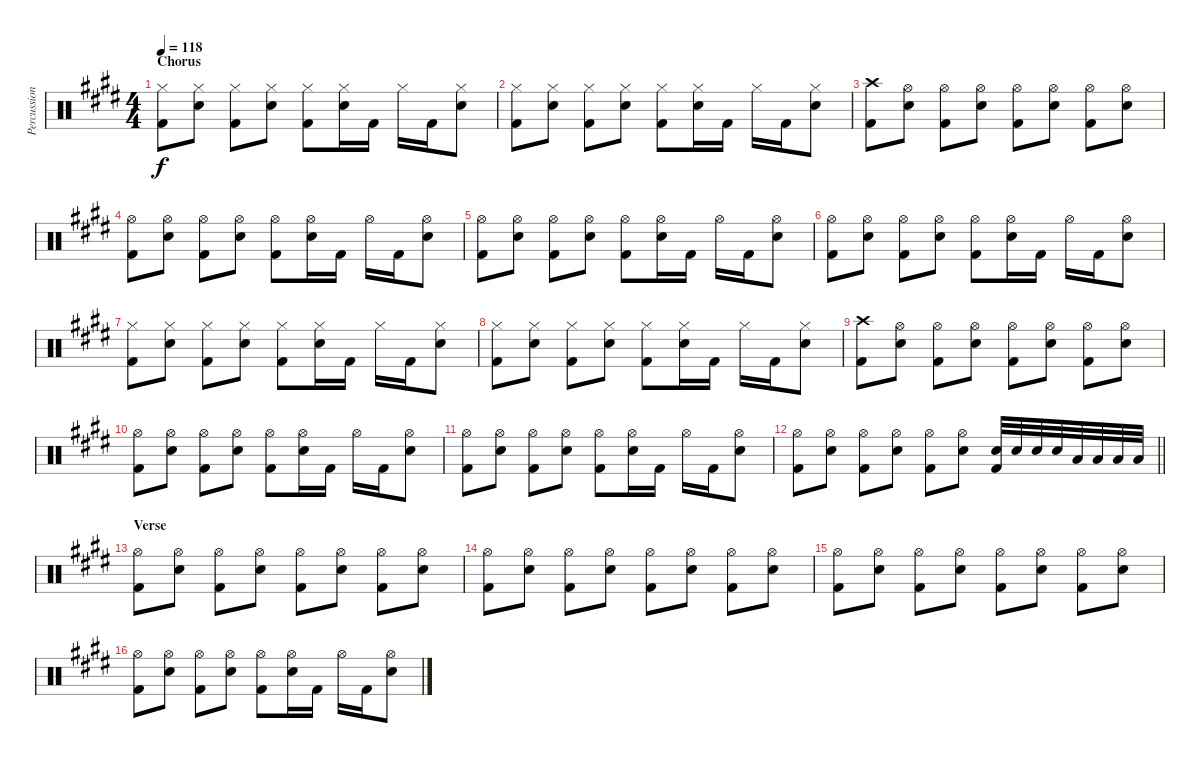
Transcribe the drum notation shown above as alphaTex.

\track ("Percussion" "Percussion") {instrument percussion}
\staff {score}
\articulation defaults
\ts (4 4)
\section ("" "Chorus")
\tempo 118
\clef neutral
\ks e
("Hi-Hat (closed)" "Kick (hit) 2").8{dy f} ("Hi-Hat (closed)" "Electric Snare (hit)").8 ("Hi-Hat (closed)" "Kick (hit) 2").8 ("Hi-Hat (closed)" "Electric Snare (hit)").8 ("Hi-Hat (closed)" "Kick (hit) 2").8 ("Hi-Hat (closed)" "Electric Snare (hit)").16 "Kick (hit) 2".16 "Hi-Hat (closed)".16 "Kick (hit) 2".16 ("Hi-Hat (closed)" "Electric Snare (hit)").8 |
("Hi-Hat (closed)" "Kick (hit) 2").8 ("Hi-Hat (closed)" "Electric Snare (hit)").8 ("Hi-Hat (closed)" "Kick (hit) 2").8 ("Hi-Hat (closed)" "Electric Snare (hit)").8 ("Hi-Hat (closed)" "Kick (hit) 2").8 ("Hi-Hat (closed)" "Electric Snare (hit)").16 "Kick (hit) 2".16 "Hi-Hat (closed)".16 "Kick (hit) 2".16 ("Hi-Hat (closed)" "Electric Snare (hit)").8 |
("Crash high (hit)" "Kick (hit) 2").8 ("Hi-Hat (open)" "Electric Snare (hit)").8 ("Hi-Hat (open)" "Kick (hit) 2").8 ("Hi-Hat (open)" "Electric Snare (hit)").8 ("Hi-Hat (open)" "Kick (hit) 2").8 ("Hi-Hat (open)" "Electric Snare (hit)").8 ("Hi-Hat (open)" "Kick (hit) 2").8 ("Hi-Hat (open)" "Electric Snare (hit)").8 |
("Hi-Hat (open)" "Kick (hit) 2").8 ("Hi-Hat (open)" "Electric Snare (hit)").8 ("Hi-Hat (open)" "Kick (hit) 2").8 ("Hi-Hat (open)" "Electric Snare (hit)").8 ("Hi-Hat (open)" "Kick (hit) 2").8 ("Hi-Hat (open)" "Electric Snare (hit)").16 "Kick (hit) 2".16 "Hi-Hat (open)".16 "Kick (hit) 2".16 ("Hi-Hat (open)" "Electric Snare (hit)").8 |
("Hi-Hat (open)" "Kick (hit) 2").8 ("Hi-Hat (open)" "Electric Snare (hit)").8 ("Hi-Hat (open)" "Kick (hit) 2").8 ("Hi-Hat (open)" "Electric Snare (hit)").8 ("Hi-Hat (open)" "Kick (hit) 2").8 ("Hi-Hat (open)" "Electric Snare (hit)").16 "Kick (hit) 2".16 "Hi-Hat (open)".16 "Kick (hit) 2".16 ("Hi-Hat (open)" "Electric Snare (hit)").8 |
("Hi-Hat (open)" "Kick (hit) 2").8 ("Hi-Hat (open)" "Electric Snare (hit)").8 ("Hi-Hat (open)" "Kick (hit) 2").8 ("Hi-Hat (open)" "Electric Snare (hit)").8 ("Hi-Hat (open)" "Kick (hit) 2").8 ("Hi-Hat (open)" "Electric Snare (hit)").16 "Kick (hit) 2".16 "Hi-Hat (open)".16 "Kick (hit) 2".16 ("Hi-Hat (open)" "Electric Snare (hit)").8 |
("Hi-Hat (closed)" "Kick (hit) 2").8 ("Hi-Hat (closed)" "Electric Snare (hit)").8 ("Hi-Hat (closed)" "Kick (hit) 2").8 ("Hi-Hat (closed)" "Electric Snare (hit)").8 ("Hi-Hat (closed)" "Kick (hit) 2").8 ("Hi-Hat (closed)" "Electric Snare (hit)").16 "Kick (hit) 2".16 "Hi-Hat (closed)".16 "Kick (hit) 2".16 ("Hi-Hat (closed)" "Electric Snare (hit)").8 |
("Hi-Hat (closed)" "Kick (hit) 2").8 ("Hi-Hat (closed)" "Electric Snare (hit)").8 ("Hi-Hat (closed)" "Kick (hit) 2").8 ("Hi-Hat (closed)" "Electric Snare (hit)").8 ("Hi-Hat (closed)" "Kick (hit) 2").8 ("Hi-Hat (closed)" "Electric Snare (hit)").16 "Kick (hit) 2".16 "Hi-Hat (closed)".16 "Kick (hit) 2".16 ("Hi-Hat (closed)" "Electric Snare (hit)").8 |
("Crash high (hit)" "Kick (hit) 2").8 ("Hi-Hat (open)" "Electric Snare (hit)").8 ("Hi-Hat (open)" "Kick (hit) 2").8 ("Hi-Hat (open)" "Electric Snare (hit)").8 ("Hi-Hat (open)" "Kick (hit) 2").8 ("Hi-Hat (open)" "Electric Snare (hit)").8 ("Hi-Hat (open)" "Kick (hit) 2").8 ("Hi-Hat (open)" "Electric Snare (hit)").8 |
("Hi-Hat (open)" "Kick (hit) 2").8 ("Hi-Hat (open)" "Electric Snare (hit)").8 ("Hi-Hat (open)" "Kick (hit) 2").8 ("Hi-Hat (open)" "Electric Snare (hit)").8 ("Hi-Hat (open)" "Kick (hit) 2").8 ("Hi-Hat (open)" "Electric Snare (hit)").16 "Kick (hit) 2".16 "Hi-Hat (open)".16 "Kick (hit) 2".16 ("Hi-Hat (open)" "Electric Snare (hit)").8 |
("Hi-Hat (open)" "Kick (hit) 2").8 ("Hi-Hat (open)" "Electric Snare (hit)").8 ("Hi-Hat (open)" "Kick (hit) 2").8 ("Hi-Hat (open)" "Electric Snare (hit)").8 ("Hi-Hat (open)" "Kick (hit) 2").8 ("Hi-Hat (open)" "Electric Snare (hit)").16 "Kick (hit) 2".16 "Hi-Hat (open)".16 "Kick (hit) 2".16 ("Hi-Hat (open)" "Electric Snare (hit)").8 |
\barLineRight lightlight
("Hi-Hat (open)" "Kick (hit) 2").8 ("Hi-Hat (open)" "Electric Snare (hit)").8 ("Hi-Hat (open)" "Kick (hit) 2").8 ("Hi-Hat (open)" "Electric Snare (hit)").8 ("Hi-Hat (open)" "Kick (hit) 2").8 ("Hi-Hat (open)" "Electric Snare (hit)").8 ("Electric Snare (hit)" "Kick (hit) 2").32 "Electric Snare (hit)".32 "Electric Snare (hit)".32 "Electric Snare (hit)".32 "Low Tom (hit)".32 "Low Tom (hit)".32 "Low Tom (hit)".32 "Low Tom (hit)".32 |
\section ("" "Verse")
("Hi-Hat (open)" "Kick (hit) 2").8 ("Hi-Hat (open)" "Electric Snare (hit)").8 ("Hi-Hat (open)" "Kick (hit) 2").8 ("Hi-Hat (open)" "Electric Snare (hit)").8 ("Hi-Hat (open)" "Kick (hit) 2").8 ("Hi-Hat (open)" "Electric Snare (hit)").8 ("Hi-Hat (open)" "Kick (hit) 2").8 ("Hi-Hat (open)" "Electric Snare (hit)").8 |
("Hi-Hat (open)" "Kick (hit) 2").8 ("Hi-Hat (open)" "Electric Snare (hit)").8 ("Hi-Hat (open)" "Kick (hit) 2").8 ("Hi-Hat (open)" "Electric Snare (hit)").8 ("Hi-Hat (open)" "Kick (hit) 2").8 ("Hi-Hat (open)" "Electric Snare (hit)").8 ("Hi-Hat (open)" "Kick (hit) 2").8 ("Hi-Hat (open)" "Electric Snare (hit)").8 |
("Hi-Hat (open)" "Kick (hit) 2").8 ("Hi-Hat (open)" "Electric Snare (hit)").8 ("Hi-Hat (open)" "Kick (hit) 2").8 ("Hi-Hat (open)" "Electric Snare (hit)").8 ("Hi-Hat (open)" "Kick (hit) 2").8 ("Hi-Hat (open)" "Electric Snare (hit)").8 ("Hi-Hat (open)" "Kick (hit) 2").8 ("Hi-Hat (open)" "Electric Snare (hit)").8 |
("Hi-Hat (open)" "Kick (hit) 2").8 ("Hi-Hat (open)" "Electric Snare (hit)").8 ("Hi-Hat (open)" "Kick (hit) 2").8 ("Hi-Hat (open)" "Electric Snare (hit)").8 ("Hi-Hat (open)" "Kick (hit) 2").8 ("Hi-Hat (open)" "Electric Snare (hit)").16 "Kick (hit) 2".16 "Hi-Hat (open)".16 "Kick (hit) 2".16 ("Hi-Hat (open)" "Electric Snare (hit)").8
